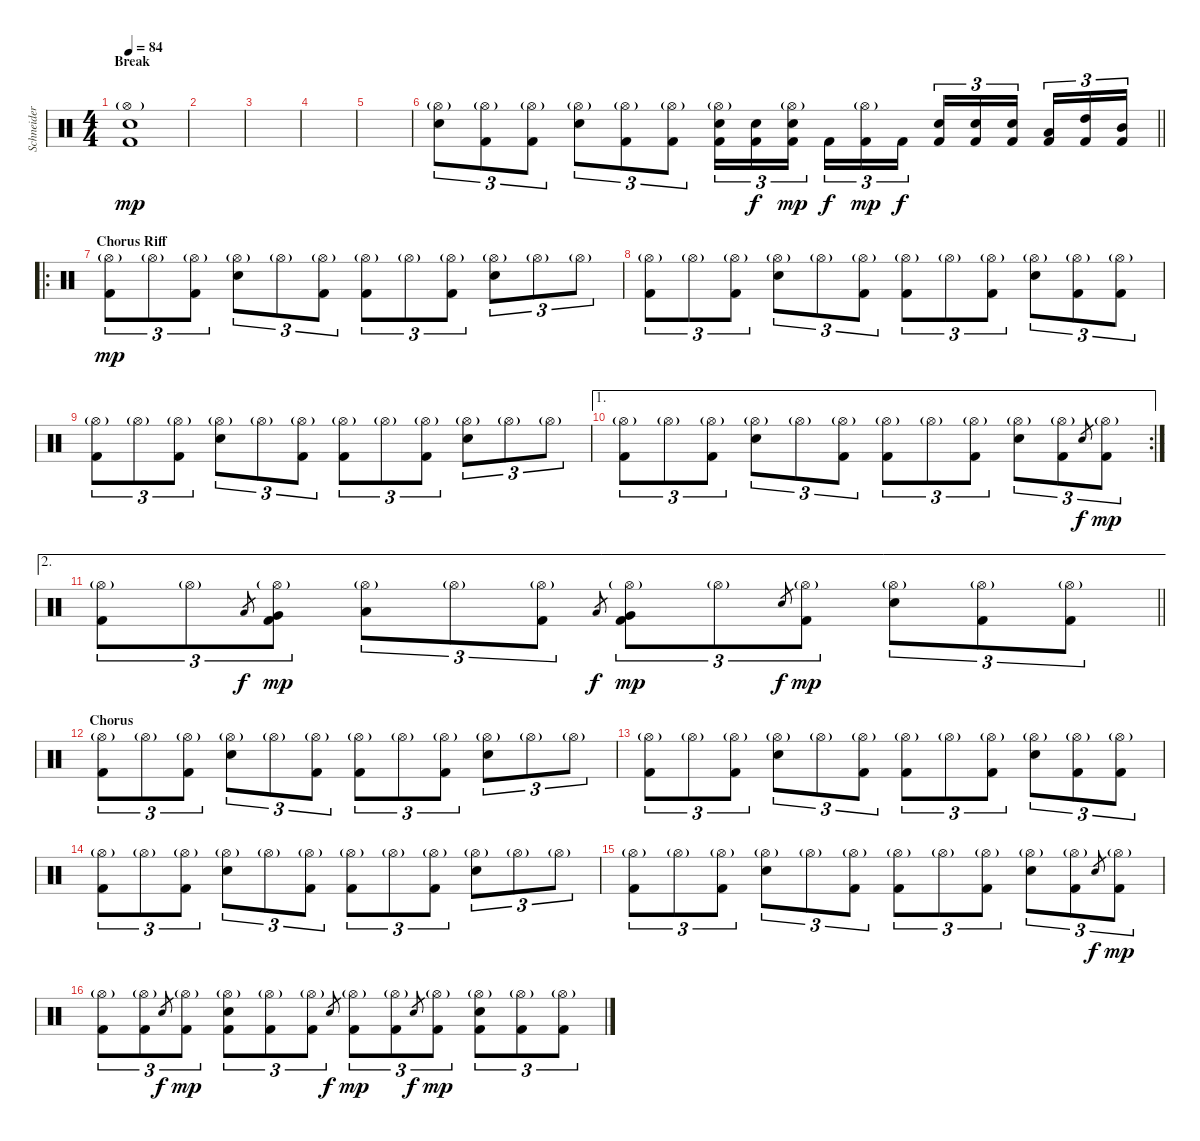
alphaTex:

\track ("Schneider" "Schneider") {instrument percussion}
\staff {score}
\articulation defaults
\ts (4 4)
\section ("" "Break")
\tempo 84
\clef neutral
\ks c
("Hi-Hat (open)"{g} "Kick (hit) 2" "Electric Snare (hit)").1{dy mp} |
|
|
|
|
\barLineRight lightlight
("Hi-Hat (open)"{g} "Electric Snare (hit)").8{tu (3 2)} ("Hi-Hat (open)"{g} "Kick (hit) 2").8{tu (3 2)} ("Hi-Hat (open)"{g} "Kick (hit) 2").8{tu (3 2)} ("Hi-Hat (open)"{g} "Electric Snare (hit)").8{tu (3 2)} ("Hi-Hat (open)"{g} "Kick (hit) 2").8{tu (3 2)} ("Hi-Hat (open)"{g} "Kick (hit) 2").8{tu (3 2)} ("Hi-Hat (open)"{g} "Kick (hit) 2" "Electric Snare (hit)").16{tu (3 2)} ("Kick (hit) 2" "Electric Snare (hit)").16{tu (3 2) dy f} ("Hi-Hat (open)"{g} "Kick (hit) 2" "Electric Snare (hit)").16{tu (3 2) dy mp beam splitsecondary} "Kick (hit) 2".16{tu (3 2) dy f} ("Hi-Hat (open)"{g} "Kick (hit) 2").16{tu (3 2) dy mp} "Kick (hit) 2".16{tu (3 2) dy f} ("Kick (hit) 2" "Electric Snare (hit)").16{tu (3 2)} ("Kick (hit) 2" "Electric Snare (hit)").16{tu (3 2)} ("Kick (hit) 2" "Electric Snare (hit)").16{tu (3 2) beam splitsecondary} ("Kick (hit) 2" "Low Tom (hit)").16{tu (3 2)} ("Kick (hit) 2" "High Tom (hit)").16{tu (3 2)} ("Kick (hit) 2" "Mid Tom (hit)").16{tu (3 2)} |
\ro
\section ("" "Chorus Riff")
("Hi-Hat (open)"{g} "Kick (hit) 2").8{tu (3 2) dy mp} "Hi-Hat (open)"{g}.8{tu (3 2)} ("Hi-Hat (open)"{g} "Kick (hit) 2").8{tu (3 2)} ("Hi-Hat (open)"{g} "Electric Snare (hit)").8{tu (3 2)} "Hi-Hat (open)"{g}.8{tu (3 2)} ("Hi-Hat (open)"{g} "Kick (hit) 2").8{tu (3 2)} ("Hi-Hat (open)"{g} "Kick (hit) 2").8{tu (3 2)} "Hi-Hat (open)"{g}.8{tu (3 2)} ("Hi-Hat (open)"{g} "Kick (hit) 2").8{tu (3 2)} ("Hi-Hat (open)"{g} "Electric Snare (hit)").8{tu (3 2)} "Hi-Hat (open)"{g}.8{tu (3 2)} "Hi-Hat (open)"{g}.8{tu (3 2)} |
("Hi-Hat (open)"{g} "Kick (hit) 2").8{tu (3 2)} "Hi-Hat (open)"{g}.8{tu (3 2)} ("Hi-Hat (open)"{g} "Kick (hit) 2").8{tu (3 2)} ("Hi-Hat (open)"{g} "Electric Snare (hit)").8{tu (3 2)} "Hi-Hat (open)"{g}.8{tu (3 2)} ("Hi-Hat (open)"{g} "Kick (hit) 2").8{tu (3 2)} ("Hi-Hat (open)"{g} "Kick (hit) 2").8{tu (3 2)} "Hi-Hat (open)"{g}.8{tu (3 2)} ("Hi-Hat (open)"{g} "Kick (hit) 2").8{tu (3 2)} ("Hi-Hat (open)"{g} "Electric Snare (hit)").8{tu (3 2)} ("Hi-Hat (open)"{g} "Kick (hit) 2").8{tu (3 2)} ("Hi-Hat (open)"{g} "Kick (hit) 2").8{tu (3 2)} |
("Hi-Hat (open)"{g} "Kick (hit) 2").8{tu (3 2)} "Hi-Hat (open)"{g}.8{tu (3 2)} ("Hi-Hat (open)"{g} "Kick (hit) 2").8{tu (3 2)} ("Hi-Hat (open)"{g} "Electric Snare (hit)").8{tu (3 2)} "Hi-Hat (open)"{g}.8{tu (3 2)} ("Hi-Hat (open)"{g} "Kick (hit) 2").8{tu (3 2)} ("Hi-Hat (open)"{g} "Kick (hit) 2").8{tu (3 2)} "Hi-Hat (open)"{g}.8{tu (3 2)} ("Hi-Hat (open)"{g} "Kick (hit) 2").8{tu (3 2)} ("Hi-Hat (open)"{g} "Electric Snare (hit)").8{tu (3 2)} "Hi-Hat (open)"{g}.8{tu (3 2)} "Hi-Hat (open)"{g}.8{tu (3 2)} |
\ae 1
\rc 2
("Hi-Hat (open)"{g} "Kick (hit) 2").8{tu (3 2)} "Hi-Hat (open)"{g}.8{tu (3 2)} ("Hi-Hat (open)"{g} "Kick (hit) 2").8{tu (3 2)} ("Hi-Hat (open)"{g} "Electric Snare (hit)").8{tu (3 2)} "Hi-Hat (open)"{g}.8{tu (3 2)} ("Hi-Hat (open)"{g} "Kick (hit) 2").8{tu (3 2)} ("Hi-Hat (open)"{g} "Kick (hit) 2").8{tu (3 2)} "Hi-Hat (open)"{g}.8{tu (3 2)} ("Hi-Hat (open)"{g} "Kick (hit) 2").8{tu (3 2)} ("Hi-Hat (open)"{g} "Electric Snare (hit)").8{tu (3 2)} ("Hi-Hat (open)"{g} "Kick (hit) 2").8{tu (3 2)} "Electric Snare (hit)".8{gr dy f} ("Hi-Hat (open)"{g} "Kick (hit) 2").8{tu (3 2) dy mp} |
\ae 2
\barLineRight lightlight
("Hi-Hat (open)"{g} "Kick (hit) 2").8{tu (3 2)} "Hi-Hat (open)"{g}.8{tu (3 2)} "Low Tom (hit)".8{gr dy f} ("Hi-Hat (open)"{g} "Kick (hit) 2" "Very Low Tom (hit)").8{tu (3 2) dy mp} ("Hi-Hat (open)"{g} "Low Tom (hit)").8{tu (3 2)} "Hi-Hat (open)"{g}.8{tu (3 2)} ("Hi-Hat (open)"{g} "Kick (hit) 2").8{tu (3 2)} "Low Tom (hit)".8{gr dy f} ("Hi-Hat (open)"{g} "Kick (hit) 2" "Very Low Tom (hit)").8{tu (3 2) dy mp} "Hi-Hat (open)"{g}.8{tu (3 2)} "Electric Snare (hit)".8{gr dy f} ("Hi-Hat (open)"{g} "Kick (hit) 2").8{tu (3 2) dy mp} ("Hi-Hat (open)"{g} "Electric Snare (hit)").8{tu (3 2)} ("Hi-Hat (open)"{g} "Kick (hit) 2").8{tu (3 2)} ("Hi-Hat (open)"{g} "Kick (hit) 2").8{tu (3 2)} |
\section ("" "Chorus")
("Hi-Hat (open)"{g} "Kick (hit) 2").8{tu (3 2)} "Hi-Hat (open)"{g}.8{tu (3 2)} ("Hi-Hat (open)"{g} "Kick (hit) 2").8{tu (3 2)} ("Hi-Hat (open)"{g} "Electric Snare (hit)").8{tu (3 2)} "Hi-Hat (open)"{g}.8{tu (3 2)} ("Hi-Hat (open)"{g} "Kick (hit) 2").8{tu (3 2)} ("Hi-Hat (open)"{g} "Kick (hit) 2").8{tu (3 2)} "Hi-Hat (open)"{g}.8{tu (3 2)} ("Hi-Hat (open)"{g} "Kick (hit) 2").8{tu (3 2)} ("Hi-Hat (open)"{g} "Electric Snare (hit)").8{tu (3 2)} "Hi-Hat (open)"{g}.8{tu (3 2)} "Hi-Hat (open)"{g}.8{tu (3 2)} |
("Hi-Hat (open)"{g} "Kick (hit) 2").8{tu (3 2)} "Hi-Hat (open)"{g}.8{tu (3 2)} ("Hi-Hat (open)"{g} "Kick (hit) 2").8{tu (3 2)} ("Hi-Hat (open)"{g} "Electric Snare (hit)").8{tu (3 2)} "Hi-Hat (open)"{g}.8{tu (3 2)} ("Hi-Hat (open)"{g} "Kick (hit) 2").8{tu (3 2)} ("Hi-Hat (open)"{g} "Kick (hit) 2").8{tu (3 2)} "Hi-Hat (open)"{g}.8{tu (3 2)} ("Hi-Hat (open)"{g} "Kick (hit) 2").8{tu (3 2)} ("Hi-Hat (open)"{g} "Electric Snare (hit)").8{tu (3 2)} ("Hi-Hat (open)"{g} "Kick (hit) 2").8{tu (3 2)} ("Hi-Hat (open)"{g} "Kick (hit) 2").8{tu (3 2)} |
("Hi-Hat (open)"{g} "Kick (hit) 2").8{tu (3 2)} "Hi-Hat (open)"{g}.8{tu (3 2)} ("Hi-Hat (open)"{g} "Kick (hit) 2").8{tu (3 2)} ("Hi-Hat (open)"{g} "Electric Snare (hit)").8{tu (3 2)} "Hi-Hat (open)"{g}.8{tu (3 2)} ("Hi-Hat (open)"{g} "Kick (hit) 2").8{tu (3 2)} ("Hi-Hat (open)"{g} "Kick (hit) 2").8{tu (3 2)} "Hi-Hat (open)"{g}.8{tu (3 2)} ("Hi-Hat (open)"{g} "Kick (hit) 2").8{tu (3 2)} ("Hi-Hat (open)"{g} "Electric Snare (hit)").8{tu (3 2)} "Hi-Hat (open)"{g}.8{tu (3 2)} "Hi-Hat (open)"{g}.8{tu (3 2)} |
("Hi-Hat (open)"{g} "Kick (hit) 2").8{tu (3 2)} "Hi-Hat (open)"{g}.8{tu (3 2)} ("Hi-Hat (open)"{g} "Kick (hit) 2").8{tu (3 2)} ("Hi-Hat (open)"{g} "Electric Snare (hit)").8{tu (3 2)} "Hi-Hat (open)"{g}.8{tu (3 2)} ("Hi-Hat (open)"{g} "Kick (hit) 2").8{tu (3 2)} ("Hi-Hat (open)"{g} "Kick (hit) 2").8{tu (3 2)} "Hi-Hat (open)"{g}.8{tu (3 2)} ("Hi-Hat (open)"{g} "Kick (hit) 2").8{tu (3 2)} ("Hi-Hat (open)"{g} "Electric Snare (hit)").8{tu (3 2)} ("Hi-Hat (open)"{g} "Kick (hit) 2").8{tu (3 2)} "Electric Snare (hit)".8{gr dy f} ("Hi-Hat (open)"{g} "Kick (hit) 2").8{tu (3 2) dy mp} |
("Hi-Hat (open)"{g} "Kick (hit) 2").8{tu (3 2)} ("Hi-Hat (open)"{g} "Kick (hit) 2").8{tu (3 2)} "Electric Snare (hit)".8{gr dy f} ("Hi-Hat (open)"{g} "Kick (hit) 2").8{tu (3 2) dy mp} ("Hi-Hat (open)"{g} "Kick (hit) 2" "Electric Snare (hit)").8{tu (3 2)} ("Hi-Hat (open)"{g} "Kick (hit) 2").8{tu (3 2)} ("Hi-Hat (open)"{g} "Kick (hit) 2").8{tu (3 2)} "Electric Snare (hit)".8{gr dy f} ("Hi-Hat (open)"{g} "Kick (hit) 2").8{tu (3 2) dy mp} ("Hi-Hat (open)"{g} "Kick (hit) 2").8{tu (3 2)} "Electric Snare (hit)".8{gr dy f} ("Hi-Hat (open)"{g} "Kick (hit) 2").8{tu (3 2) dy mp} ("Hi-Hat (open)"{g} "Kick (hit) 2" "Electric Snare (hit)").8{tu (3 2)} ("Hi-Hat (open)"{g} "Kick (hit) 2").8{tu (3 2)} ("Hi-Hat (open)"{g} "Kick (hit) 2").8{tu (3 2)}
